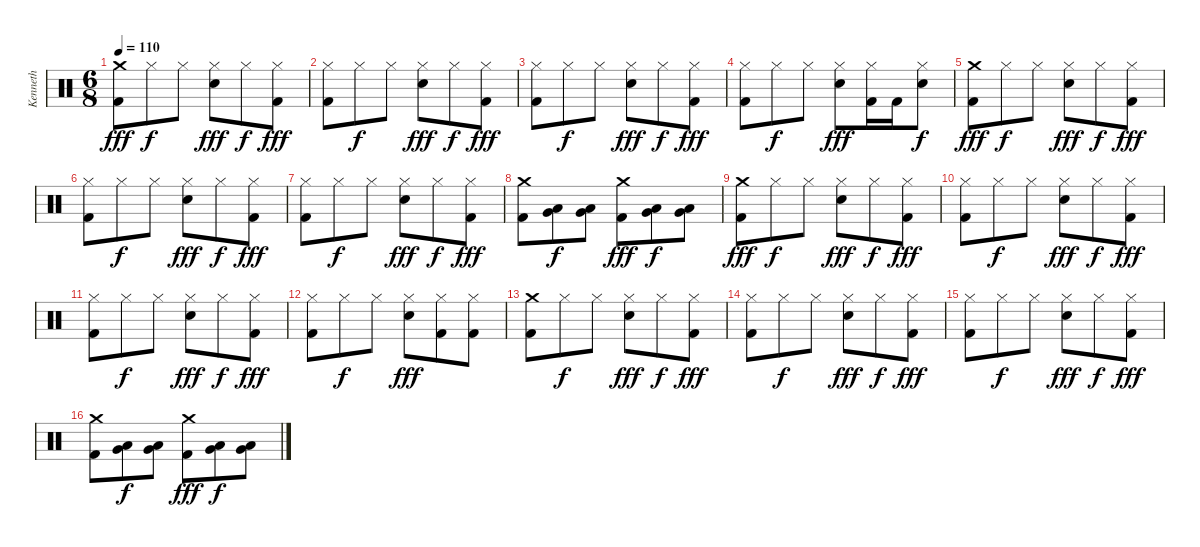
\track ("Kenneth " "Kenneth ") {instrument percussion}
\staff {score}
\articulation defaults
\ts (6 8)
\tempo 110
\clef neutral
\ks c
("Crash medium (hit)" "Kick (hit) 2").8{dy fff} "Hi-Hat (closed)".8{dy f} "Hi-Hat (closed)".8 ("Hi-Hat (closed)" "Electric Snare (hit)").8{dy fff} "Hi-Hat (closed)".8{dy f} ("Hi-Hat (closed)" "Kick (hit) 2").8{dy fff} |
("Hi-Hat (closed)" "Kick (hit) 2").8 "Hi-Hat (closed)".8{dy f} "Hi-Hat (closed)".8 ("Hi-Hat (closed)" "Electric Snare (hit)").8{dy fff} "Hi-Hat (closed)".8{dy f} ("Hi-Hat (closed)" "Kick (hit) 2").8{dy fff} |
("Hi-Hat (closed)" "Kick (hit) 2").8 "Hi-Hat (closed)".8{dy f} "Hi-Hat (closed)".8 ("Hi-Hat (closed)" "Electric Snare (hit)").8{dy fff} "Hi-Hat (closed)".8{dy f} ("Hi-Hat (closed)" "Kick (hit) 2").8{dy fff} |
("Hi-Hat (closed)" "Kick (hit) 2").8 "Hi-Hat (closed)".8{dy f} "Hi-Hat (closed)".8 ("Hi-Hat (closed)" "Electric Snare (hit)").8{dy fff} ("Hi-Hat (closed)" "Kick (hit) 2").16 "Kick (hit) 2".16 ("Hi-Hat (closed)" "Electric Snare (hit)").8{dy f} |
("Crash medium (hit)" "Kick (hit) 2").8{dy fff} "Hi-Hat (closed)".8{dy f} "Hi-Hat (closed)".8 ("Hi-Hat (closed)" "Electric Snare (hit)").8{dy fff} "Hi-Hat (closed)".8{dy f} ("Hi-Hat (closed)" "Kick (hit) 2").8{dy fff} |
("Hi-Hat (closed)" "Kick (hit) 2").8 "Hi-Hat (closed)".8{dy f} "Hi-Hat (closed)".8 ("Hi-Hat (closed)" "Electric Snare (hit)").8{dy fff} "Hi-Hat (closed)".8{dy f} ("Hi-Hat (closed)" "Kick (hit) 2").8{dy fff} |
("Hi-Hat (closed)" "Kick (hit) 2").8 "Hi-Hat (closed)".8{dy f} "Hi-Hat (closed)".8 ("Hi-Hat (closed)" "Electric Snare (hit)").8{dy fff} "Hi-Hat (closed)".8{dy f} ("Hi-Hat (closed)" "Kick (hit) 2").8{dy fff} |
("Crash medium (hit)" "Kick (hit) 2").8 ("Low Tom (hit)" "Very Low Tom (hit)").8{dy f} ("Low Tom (hit)" "Very Low Tom (hit)").8 ("Crash medium (hit)" "Kick (hit) 2").8{dy fff} ("Low Tom (hit)" "Very Low Tom (hit)").8{dy f} ("Low Tom (hit)" "Very Low Tom (hit)").8 |
("Crash medium (hit)" "Kick (hit) 2").8{dy fff} "Hi-Hat (closed)".8{dy f} "Hi-Hat (closed)".8 ("Hi-Hat (closed)" "Electric Snare (hit)").8{dy fff} "Hi-Hat (closed)".8{dy f} ("Hi-Hat (closed)" "Kick (hit) 2").8{dy fff} |
("Hi-Hat (closed)" "Kick (hit) 2").8 "Hi-Hat (closed)".8{dy f} "Hi-Hat (closed)".8 ("Hi-Hat (closed)" "Electric Snare (hit)").8{dy fff} "Hi-Hat (closed)".8{dy f} ("Hi-Hat (closed)" "Kick (hit) 2").8{dy fff} |
("Hi-Hat (closed)" "Kick (hit) 2").8 "Hi-Hat (closed)".8{dy f} "Hi-Hat (closed)".8 ("Hi-Hat (closed)" "Electric Snare (hit)").8{dy fff} "Hi-Hat (closed)".8{dy f} ("Hi-Hat (closed)" "Kick (hit) 2").8{dy fff} |
("Hi-Hat (closed)" "Kick (hit) 2").8 "Hi-Hat (closed)".8{dy f} "Hi-Hat (closed)".8 ("Hi-Hat (closed)" "Electric Snare (hit)").8{dy fff} ("Hi-Hat (closed)" "Kick (hit) 2").8 ("Hi-Hat (closed)" "Kick (hit) 2").8 |
("Crash medium (hit)" "Kick (hit) 2").8 "Hi-Hat (closed)".8{dy f} "Hi-Hat (closed)".8 ("Hi-Hat (closed)" "Electric Snare (hit)").8{dy fff} "Hi-Hat (closed)".8{dy f} ("Hi-Hat (closed)" "Kick (hit) 2").8{dy fff} |
("Hi-Hat (closed)" "Kick (hit) 2").8 "Hi-Hat (closed)".8{dy f} "Hi-Hat (closed)".8 ("Hi-Hat (closed)" "Electric Snare (hit)").8{dy fff} "Hi-Hat (closed)".8{dy f} ("Hi-Hat (closed)" "Kick (hit) 2").8{dy fff} |
("Hi-Hat (closed)" "Kick (hit) 2").8 "Hi-Hat (closed)".8{dy f} "Hi-Hat (closed)".8 ("Hi-Hat (closed)" "Electric Snare (hit)").8{dy fff} "Hi-Hat (closed)".8{dy f} ("Hi-Hat (closed)" "Kick (hit) 2").8{dy fff} |
("Crash medium (hit)" "Kick (hit) 2").8 ("Low Tom (hit)" "Very Low Tom (hit)").8{dy f} ("Low Tom (hit)" "Very Low Tom (hit)").8 ("Crash medium (hit)" "Kick (hit) 2").8{dy fff} ("Low Tom (hit)" "Very Low Tom (hit)").8{dy f} ("Low Tom (hit)" "Very Low Tom (hit)").8
